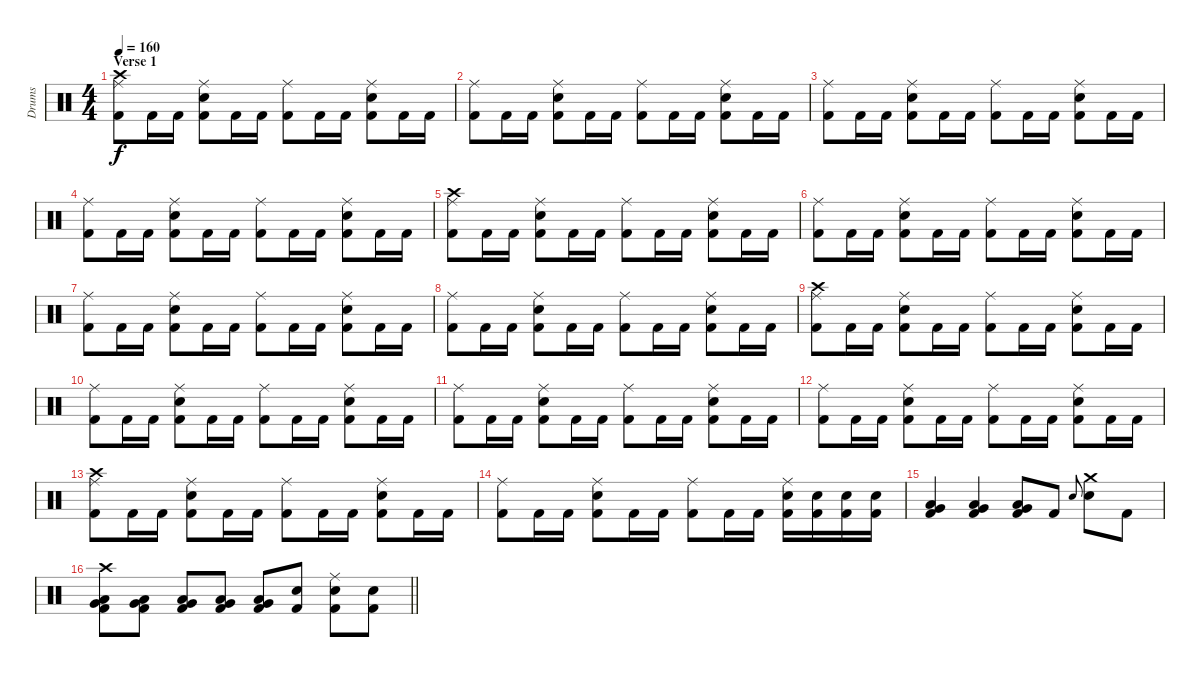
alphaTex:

\track ("Drums" "Drums") {instrument percussion}
\staff {score}
\articulation defaults
\ts (4 4)
\section ("" "Verse 1")
\tempo 160
\clef neutral
\ks c
("Crash high (hit)" "Ride (middle)" "Kick (hit) 2").8{dy f} "Kick (hit) 2".16 "Kick (hit) 2".16 ("Ride (middle)" "Snare (hit) 2" "Kick (hit) 2").8 "Kick (hit) 2".16 "Kick (hit) 2".16 ("Ride (middle)" "Kick (hit) 2").8 "Kick (hit) 2".16 "Kick (hit) 2".16 ("Ride (middle)" "Snare (hit) 2" "Kick (hit) 2").8 "Kick (hit) 2".16 "Kick (hit) 2".16 |
("Ride (middle)" "Kick (hit) 2").8 "Kick (hit) 2".16 "Kick (hit) 2".16 ("Ride (middle)" "Snare (hit) 2" "Kick (hit) 2").8 "Kick (hit) 2".16 "Kick (hit) 2".16 ("Ride (middle)" "Kick (hit) 2").8 "Kick (hit) 2".16 "Kick (hit) 2".16 ("Ride (middle)" "Snare (hit) 2" "Kick (hit) 2").8 "Kick (hit) 2".16 "Kick (hit) 2".16 |
("Ride (middle)" "Kick (hit) 2").8 "Kick (hit) 2".16 "Kick (hit) 2".16 ("Ride (middle)" "Snare (hit) 2" "Kick (hit) 2").8 "Kick (hit) 2".16 "Kick (hit) 2".16 ("Ride (middle)" "Kick (hit) 2").8 "Kick (hit) 2".16 "Kick (hit) 2".16 ("Ride (middle)" "Snare (hit) 2" "Kick (hit) 2").8 "Kick (hit) 2".16 "Kick (hit) 2".16 |
("Ride (middle)" "Kick (hit) 2").8 "Kick (hit) 2".16 "Kick (hit) 2".16 ("Ride (middle)" "Snare (hit) 2" "Kick (hit) 2").8 "Kick (hit) 2".16 "Kick (hit) 2".16 ("Ride (middle)" "Kick (hit) 2").8 "Kick (hit) 2".16 "Kick (hit) 2".16 ("Ride (middle)" "Snare (hit) 2" "Kick (hit) 2").8 "Kick (hit) 2".16 "Kick (hit) 2".16 |
("Crash high (hit)" "Ride (middle)" "Kick (hit) 2").8 "Kick (hit) 2".16 "Kick (hit) 2".16 ("Ride (middle)" "Snare (hit) 2" "Kick (hit) 2").8 "Kick (hit) 2".16 "Kick (hit) 2".16 ("Ride (middle)" "Kick (hit) 2").8 "Kick (hit) 2".16 "Kick (hit) 2".16 ("Ride (middle)" "Snare (hit) 2" "Kick (hit) 2").8 "Kick (hit) 2".16 "Kick (hit) 2".16 |
("Ride (middle)" "Kick (hit) 2").8 "Kick (hit) 2".16 "Kick (hit) 2".16 ("Ride (middle)" "Snare (hit) 2" "Kick (hit) 2").8 "Kick (hit) 2".16 "Kick (hit) 2".16 ("Ride (middle)" "Kick (hit) 2").8 "Kick (hit) 2".16 "Kick (hit) 2".16 ("Ride (middle)" "Snare (hit) 2" "Kick (hit) 2").8 "Kick (hit) 2".16 "Kick (hit) 2".16 |
("Ride (middle)" "Kick (hit) 2").8 "Kick (hit) 2".16 "Kick (hit) 2".16 ("Ride (middle)" "Snare (hit) 2" "Kick (hit) 2").8 "Kick (hit) 2".16 "Kick (hit) 2".16 ("Ride (middle)" "Kick (hit) 2").8 "Kick (hit) 2".16 "Kick (hit) 2".16 ("Ride (middle)" "Snare (hit) 2" "Kick (hit) 2").8 "Kick (hit) 2".16 "Kick (hit) 2".16 |
("Ride (middle)" "Kick (hit) 2").8 "Kick (hit) 2".16 "Kick (hit) 2".16 ("Ride (middle)" "Snare (hit) 2" "Kick (hit) 2").8 "Kick (hit) 2".16 "Kick (hit) 2".16 ("Ride (middle)" "Kick (hit) 2").8 "Kick (hit) 2".16 "Kick (hit) 2".16 ("Ride (middle)" "Snare (hit) 2" "Kick (hit) 2").8 "Kick (hit) 2".16 "Kick (hit) 2".16 |
("Crash high (hit)" "Ride (middle)" "Kick (hit) 2").8 "Kick (hit) 2".16 "Kick (hit) 2".16 ("Ride (middle)" "Snare (hit) 2" "Kick (hit) 2").8 "Kick (hit) 2".16 "Kick (hit) 2".16 ("Ride (middle)" "Kick (hit) 2").8 "Kick (hit) 2".16 "Kick (hit) 2".16 ("Ride (middle)" "Snare (hit) 2" "Kick (hit) 2").8 "Kick (hit) 2".16 "Kick (hit) 2".16 |
("Ride (middle)" "Kick (hit) 2").8 "Kick (hit) 2".16 "Kick (hit) 2".16 ("Ride (middle)" "Snare (hit) 2" "Kick (hit) 2").8 "Kick (hit) 2".16 "Kick (hit) 2".16 ("Ride (middle)" "Kick (hit) 2").8 "Kick (hit) 2".16 "Kick (hit) 2".16 ("Ride (middle)" "Snare (hit) 2" "Kick (hit) 2").8 "Kick (hit) 2".16 "Kick (hit) 2".16 |
("Ride (middle)" "Kick (hit) 2").8 "Kick (hit) 2".16 "Kick (hit) 2".16 ("Ride (middle)" "Snare (hit) 2" "Kick (hit) 2").8 "Kick (hit) 2".16 "Kick (hit) 2".16 ("Ride (middle)" "Kick (hit) 2").8 "Kick (hit) 2".16 "Kick (hit) 2".16 ("Ride (middle)" "Snare (hit) 2" "Kick (hit) 2").8 "Kick (hit) 2".16 "Kick (hit) 2".16 |
("Ride (middle)" "Kick (hit) 2").8 "Kick (hit) 2".16 "Kick (hit) 2".16 ("Ride (middle)" "Snare (hit) 2" "Kick (hit) 2").8 "Kick (hit) 2".16 "Kick (hit) 2".16 ("Ride (middle)" "Kick (hit) 2").8 "Kick (hit) 2".16 "Kick (hit) 2".16 ("Ride (middle)" "Snare (hit) 2" "Kick (hit) 2").8 "Kick (hit) 2".16 "Kick (hit) 2".16 |
("Crash high (hit)" "Ride (middle)" "Kick (hit) 2").8 "Kick (hit) 2".16 "Kick (hit) 2".16 ("Ride (middle)" "Snare (hit) 2" "Kick (hit) 2").8 "Kick (hit) 2".16 "Kick (hit) 2".16 ("Ride (middle)" "Kick (hit) 2").8 "Kick (hit) 2".16 "Kick (hit) 2".16 ("Ride (middle)" "Snare (hit) 2" "Kick (hit) 2").8 "Kick (hit) 2".16 "Kick (hit) 2".16 |
("Ride (middle)" "Kick (hit) 2").8 "Kick (hit) 2".16 "Kick (hit) 2".16 ("Ride (middle)" "Snare (hit) 2" "Kick (hit) 2").8 "Kick (hit) 2".16 "Kick (hit) 2".16 ("Ride (middle)" "Kick (hit) 2").8 "Kick (hit) 2".16 "Kick (hit) 2".16 ("Ride (middle)" "Snare (hit) 2" "Kick (hit) 2").16 ("Snare (hit) 2" "Kick (hit) 2").16 ("Snare (hit) 2" "Kick (hit) 2").16 ("Snare (hit) 2" "Kick (hit) 2").16 |
("Very Low Tom (hit)" "Low Floor Tom (hit)" "Kick (hit) 2").4 ("Very Low Tom (hit)" "Low Floor Tom (hit)" "Kick (hit) 2").4 ("Very Low Tom (hit)" "Low Floor Tom (hit)" "Kick (hit) 2").8 "Kick (hit) 2".8 "Snare (hit) 2".8{gr onbeat} ("Crash medium (hit)" "Snare (hit) 2").8 "Kick (hit) 2".8 |
\barLineRight lightlight
("Crash high (hit)" "Very Low Tom (hit)" "Low Floor Tom (hit)" "Kick (hit) 2").8 ("Very Low Tom (hit)" "Low Floor Tom (hit)" "Kick (hit) 2").8 ("Very Low Tom (hit)" "Low Floor Tom (hit)" "Kick (hit) 2").8 ("Low Tom (hit)" "Very Low Tom (hit)" "Kick (hit) 2").8 ("Low Tom (hit)" "Very Low Tom (hit)" "Kick (hit) 2").8 ("Snare (hit) 2" "Kick (hit) 2").8 ("Ride (middle)" "Snare (hit) 2" "Kick (hit) 2").8 ("Snare (hit) 2" "Kick (hit) 2").8
